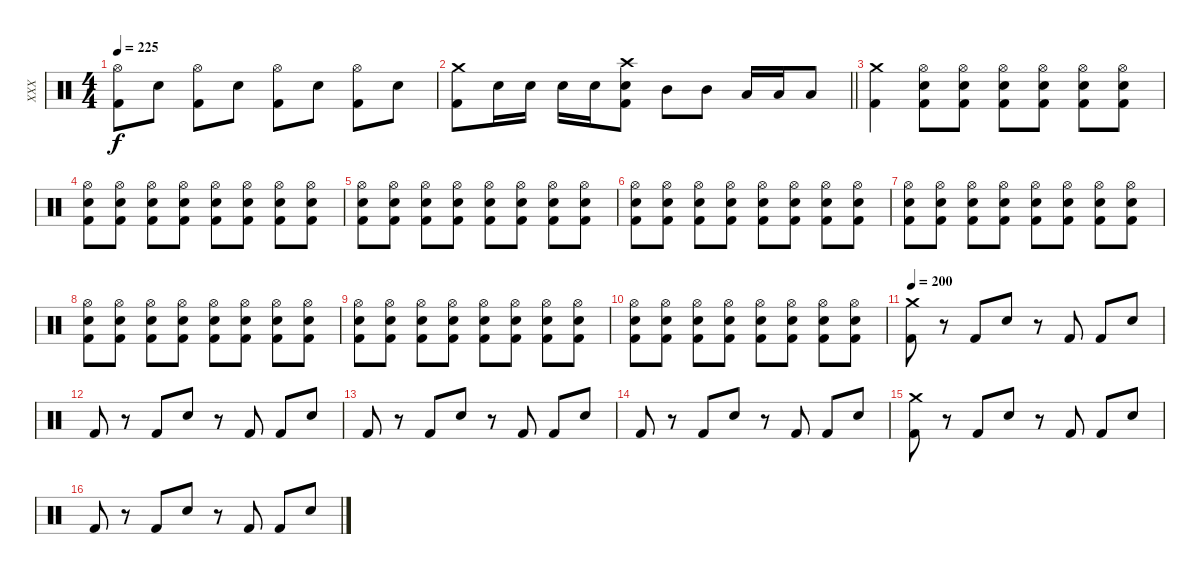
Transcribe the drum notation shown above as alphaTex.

\track ("XXX" "XXX") {instrument percussion}
\staff {score}
\articulation defaults
\ts (4 4)
\tempo 225
\clef neutral
\ks c
("Hi-Hat (open)" "Kick (hit) 2").8{dy f} "Electric Snare (hit)".8 ("Hi-Hat (open)" "Kick (hit) 2").8 "Electric Snare (hit)".8 ("Hi-Hat (open)" "Kick (hit) 2").8 "Electric Snare (hit)".8 ("Hi-Hat (open)" "Kick (hit) 2").8 "Electric Snare (hit)".8 |
\barLineRight lightlight
("Crash medium (hit)" "Kick (hit) 2").8 "Electric Snare (hit)".16 "Electric Snare (hit)".16 "Electric Snare (hit)".16 "Electric Snare (hit)".16 ("Crash high (hit)" "Electric Snare (hit)" "Kick (hit) 2").8 "Mid Tom (hit)".8 "Mid Tom (hit)".8 "Low Tom (hit)".16 "Low Tom (hit)".16 "Low Tom (hit)".8 |
("Crash medium (hit)" "Kick (hit) 2").4 ("Hi-Hat (open)" "Electric Snare (hit)" "Kick (hit) 2").8 ("Hi-Hat (open)" "Electric Snare (hit)" "Kick (hit) 2").8 ("Hi-Hat (open)" "Electric Snare (hit)" "Kick (hit) 2").8 ("Hi-Hat (open)" "Electric Snare (hit)" "Kick (hit) 2").8 ("Hi-Hat (open)" "Electric Snare (hit)" "Kick (hit) 2").8 ("Hi-Hat (open)" "Electric Snare (hit)" "Kick (hit) 2").8 |
("Hi-Hat (open)" "Electric Snare (hit)" "Kick (hit) 2").8 ("Hi-Hat (open)" "Electric Snare (hit)" "Kick (hit) 2").8 ("Hi-Hat (open)" "Electric Snare (hit)" "Kick (hit) 2").8 ("Hi-Hat (open)" "Electric Snare (hit)" "Kick (hit) 2").8 ("Hi-Hat (open)" "Electric Snare (hit)" "Kick (hit) 2").8 ("Hi-Hat (open)" "Electric Snare (hit)" "Kick (hit) 2").8 ("Hi-Hat (open)" "Electric Snare (hit)" "Kick (hit) 2").8 ("Hi-Hat (open)" "Electric Snare (hit)" "Kick (hit) 2").8 |
("Hi-Hat (open)" "Electric Snare (hit)" "Kick (hit) 2").8 ("Hi-Hat (open)" "Electric Snare (hit)" "Kick (hit) 2").8 ("Hi-Hat (open)" "Electric Snare (hit)" "Kick (hit) 2").8 ("Hi-Hat (open)" "Electric Snare (hit)" "Kick (hit) 2").8 ("Hi-Hat (open)" "Electric Snare (hit)" "Kick (hit) 2").8 ("Hi-Hat (open)" "Electric Snare (hit)" "Kick (hit) 2").8 ("Hi-Hat (open)" "Electric Snare (hit)" "Kick (hit) 2").8 ("Hi-Hat (open)" "Electric Snare (hit)" "Kick (hit) 2").8 |
("Hi-Hat (open)" "Electric Snare (hit)" "Kick (hit) 2").8 ("Hi-Hat (open)" "Electric Snare (hit)" "Kick (hit) 2").8 ("Hi-Hat (open)" "Electric Snare (hit)" "Kick (hit) 2").8 ("Hi-Hat (open)" "Electric Snare (hit)" "Kick (hit) 2").8 ("Hi-Hat (open)" "Electric Snare (hit)" "Kick (hit) 2").8 ("Hi-Hat (open)" "Electric Snare (hit)" "Kick (hit) 2").8 ("Hi-Hat (open)" "Electric Snare (hit)" "Kick (hit) 2").8 ("Hi-Hat (open)" "Electric Snare (hit)" "Kick (hit) 2").8 |
("Hi-Hat (open)" "Electric Snare (hit)" "Kick (hit) 2").8 ("Hi-Hat (open)" "Electric Snare (hit)" "Kick (hit) 2").8 ("Hi-Hat (open)" "Electric Snare (hit)" "Kick (hit) 2").8 ("Hi-Hat (open)" "Electric Snare (hit)" "Kick (hit) 2").8 ("Hi-Hat (open)" "Electric Snare (hit)" "Kick (hit) 2").8 ("Hi-Hat (open)" "Electric Snare (hit)" "Kick (hit) 2").8 ("Hi-Hat (open)" "Electric Snare (hit)" "Kick (hit) 2").8 ("Hi-Hat (open)" "Electric Snare (hit)" "Kick (hit) 2").8 |
("Hi-Hat (open)" "Electric Snare (hit)" "Kick (hit) 2").8 ("Hi-Hat (open)" "Electric Snare (hit)" "Kick (hit) 2").8 ("Hi-Hat (open)" "Electric Snare (hit)" "Kick (hit) 2").8 ("Hi-Hat (open)" "Electric Snare (hit)" "Kick (hit) 2").8 ("Hi-Hat (open)" "Electric Snare (hit)" "Kick (hit) 2").8 ("Hi-Hat (open)" "Electric Snare (hit)" "Kick (hit) 2").8 ("Hi-Hat (open)" "Electric Snare (hit)" "Kick (hit) 2").8 ("Hi-Hat (open)" "Electric Snare (hit)" "Kick (hit) 2").8 |
("Hi-Hat (open)" "Electric Snare (hit)" "Kick (hit) 2").8 ("Hi-Hat (open)" "Electric Snare (hit)" "Kick (hit) 2").8 ("Hi-Hat (open)" "Electric Snare (hit)" "Kick (hit) 2").8 ("Hi-Hat (open)" "Electric Snare (hit)" "Kick (hit) 2").8 ("Hi-Hat (open)" "Electric Snare (hit)" "Kick (hit) 2").8 ("Hi-Hat (open)" "Electric Snare (hit)" "Kick (hit) 2").8 ("Hi-Hat (open)" "Electric Snare (hit)" "Kick (hit) 2").8 ("Hi-Hat (open)" "Electric Snare (hit)" "Kick (hit) 2").8 |
("Hi-Hat (open)" "Electric Snare (hit)" "Kick (hit) 2").8 ("Hi-Hat (open)" "Electric Snare (hit)" "Kick (hit) 2").8 ("Hi-Hat (open)" "Electric Snare (hit)" "Kick (hit) 2").8 ("Hi-Hat (open)" "Electric Snare (hit)" "Kick (hit) 2").8 ("Hi-Hat (open)" "Electric Snare (hit)" "Kick (hit) 2").8 ("Hi-Hat (open)" "Electric Snare (hit)" "Kick (hit) 2").8 ("Hi-Hat (open)" "Electric Snare (hit)" "Kick (hit) 2").8 ("Hi-Hat (open)" "Electric Snare (hit)" "Kick (hit) 2").8 |
\tempo 200
("Crash medium (hit)" "Kick (hit) 2").8 r.8 "Kick (hit) 2".8 "Electric Snare (hit)".8 r.8 "Kick (hit) 2".8 "Kick (hit) 2".8 "Electric Snare (hit)".8 |
"Kick (hit) 2".8 r.8 "Kick (hit) 2".8 "Electric Snare (hit)".8 r.8 "Kick (hit) 2".8 "Kick (hit) 2".8 "Electric Snare (hit)".8 |
"Kick (hit) 2".8 r.8 "Kick (hit) 2".8 "Electric Snare (hit)".8 r.8 "Kick (hit) 2".8 "Kick (hit) 2".8 "Electric Snare (hit)".8 |
"Kick (hit) 2".8 r.8 "Kick (hit) 2".8 "Electric Snare (hit)".8 r.8 "Kick (hit) 2".8 "Kick (hit) 2".8 "Electric Snare (hit)".8 |
("Crash medium (hit)" "Kick (hit) 2").8 r.8 "Kick (hit) 2".8 "Electric Snare (hit)".8 r.8 "Kick (hit) 2".8 "Kick (hit) 2".8 "Electric Snare (hit)".8 |
"Kick (hit) 2".8 r.8 "Kick (hit) 2".8 "Electric Snare (hit)".8 r.8 "Kick (hit) 2".8 "Kick (hit) 2".8 "Electric Snare (hit)".8
